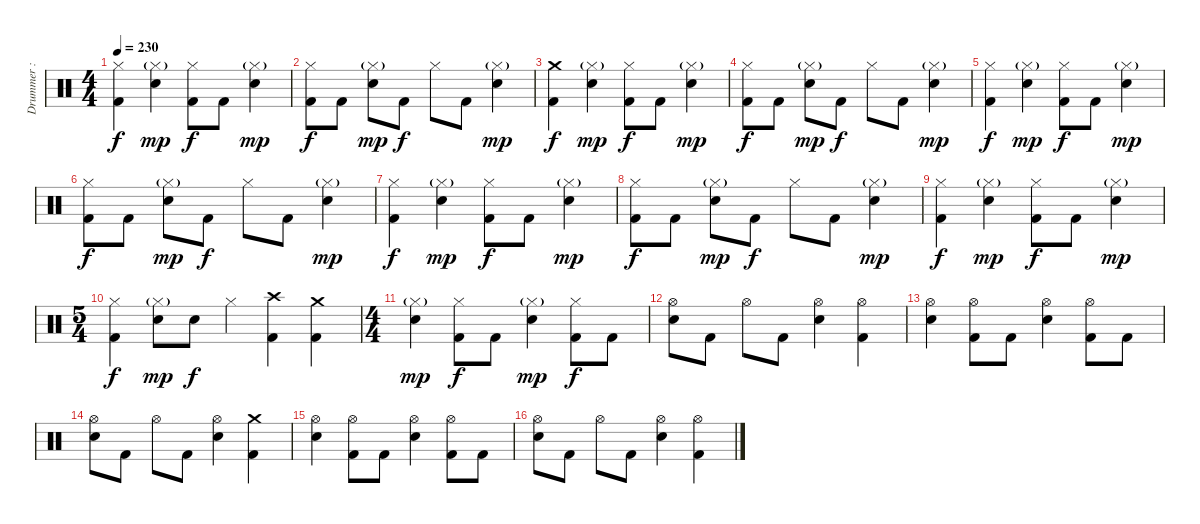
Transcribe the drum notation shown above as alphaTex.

\track ("Drummer : Tainaka Ritsu - Swan" "Drummer : ") {instrument percussion}
\staff {score}
\articulation defaults
\ts (4 4)
\tempo 230
\clef neutral
\ks c
("Hi-Hat (closed)" "Kick (hit) 2").4{dy f} ("Hi-Hat (closed)"{g} "Electric Snare (hit)").4{dy mp} ("Hi-Hat (closed)" "Kick (hit) 2").8{dy f} "Kick (hit) 2".8 ("Hi-Hat (closed)"{g} "Electric Snare (hit)").4{dy mp} |
("Hi-Hat (closed)" "Kick (hit) 2").8{dy f} "Kick (hit) 2".8 ("Hi-Hat (closed)"{g} "Electric Snare (hit)").8{dy mp} "Kick (hit) 2".8{dy f} "Hi-Hat (closed)".8 "Kick (hit) 2".8 ("Hi-Hat (closed)"{g} "Electric Snare (hit)").4{dy mp} |
("Crash medium (hit)" "Kick (hit) 2").4{dy f} ("Hi-Hat (closed)"{g} "Electric Snare (hit)").4{dy mp} ("Hi-Hat (closed)" "Kick (hit) 2").8{dy f} "Kick (hit) 2".8 ("Hi-Hat (closed)"{g} "Electric Snare (hit)").4{dy mp} |
("Hi-Hat (closed)" "Kick (hit) 2").8{dy f} "Kick (hit) 2".8 ("Hi-Hat (closed)"{g} "Electric Snare (hit)").8{dy mp} "Kick (hit) 2".8{dy f} "Hi-Hat (closed)".8 "Kick (hit) 2".8 ("Hi-Hat (closed)"{g} "Electric Snare (hit)").4{dy mp} |
("Hi-Hat (closed)" "Kick (hit) 2").4{dy f} ("Hi-Hat (closed)"{g} "Electric Snare (hit)").4{dy mp} ("Hi-Hat (closed)" "Kick (hit) 2").8{dy f} "Kick (hit) 2".8 ("Hi-Hat (closed)"{g} "Electric Snare (hit)").4{dy mp} |
("Hi-Hat (closed)" "Kick (hit) 2").8{dy f} "Kick (hit) 2".8 ("Hi-Hat (closed)"{g} "Electric Snare (hit)").8{dy mp} "Kick (hit) 2".8{dy f} "Hi-Hat (closed)".8 "Kick (hit) 2".8 ("Hi-Hat (closed)"{g} "Electric Snare (hit)").4{dy mp} |
("Hi-Hat (closed)" "Kick (hit) 2").4{dy f} ("Hi-Hat (closed)"{g} "Electric Snare (hit)").4{dy mp} ("Hi-Hat (closed)" "Kick (hit) 2").8{dy f} "Kick (hit) 2".8 ("Hi-Hat (closed)"{g} "Electric Snare (hit)").4{dy mp} |
("Hi-Hat (closed)" "Kick (hit) 2").8{dy f} "Kick (hit) 2".8 ("Hi-Hat (closed)"{g} "Electric Snare (hit)").8{dy mp} "Kick (hit) 2".8{dy f} "Hi-Hat (closed)".8 "Kick (hit) 2".8 ("Hi-Hat (closed)"{g} "Electric Snare (hit)").4{dy mp} |
("Hi-Hat (closed)" "Kick (hit) 2").4{dy f} ("Hi-Hat (closed)"{g} "Electric Snare (hit)").4{dy mp} ("Hi-Hat (closed)" "Kick (hit) 2").8{dy f} "Kick (hit) 2".8 ("Hi-Hat (closed)"{g} "Electric Snare (hit)").4{dy mp} |
\ts (5 4)
("Hi-Hat (closed)" "Kick (hit) 2").4{dy f} ("Hi-Hat (closed)"{g} "Electric Snare (hit)").8{dy mp} "Electric Snare (hit)".8{dy f} "Hi-Hat (closed)".4 ("Crash high (hit)" "Kick (hit) 2").4 ("Crash medium (hit)" "Kick (hit) 2").4 |
\ts (4 4)
("Hi-Hat (closed)"{g} "Electric Snare (hit)").4{dy mp} ("Hi-Hat (closed)" "Kick (hit) 2").8{dy f} "Kick (hit) 2".8 ("Hi-Hat (closed)"{g} "Electric Snare (hit)").4{dy mp} ("Hi-Hat (closed)" "Kick (hit) 2").8{dy f} "Kick (hit) 2".8 |
("Hi-Hat (open)" "Electric Snare (hit)").8 "Kick (hit) 2".8 "Hi-Hat (open)".8 "Kick (hit) 2".8 ("Hi-Hat (open)" "Electric Snare (hit)").4 ("Hi-Hat (open)" "Kick (hit) 2").4 |
("Hi-Hat (open)" "Electric Snare (hit)").4 ("Hi-Hat (open)" "Kick (hit) 2").8 "Kick (hit) 2".8 ("Hi-Hat (open)" "Electric Snare (hit)").4 ("Hi-Hat (open)" "Kick (hit) 2").8 "Kick (hit) 2".8 |
("Hi-Hat (open)" "Electric Snare (hit)").8 "Kick (hit) 2".8 "Hi-Hat (open)".8 "Kick (hit) 2".8 ("Hi-Hat (open)" "Electric Snare (hit)").4 ("Crash medium (hit)" "Kick (hit) 2").4 |
("Hi-Hat (open)" "Electric Snare (hit)").4 ("Hi-Hat (open)" "Kick (hit) 2").8 "Kick (hit) 2".8 ("Hi-Hat (open)" "Electric Snare (hit)").4 ("Hi-Hat (open)" "Kick (hit) 2").8 "Kick (hit) 2".8 |
("Hi-Hat (open)" "Electric Snare (hit)").8 "Kick (hit) 2".8 "Hi-Hat (open)".8 "Kick (hit) 2".8 ("Hi-Hat (open)" "Electric Snare (hit)").4 ("Hi-Hat (open)" "Kick (hit) 2").4
